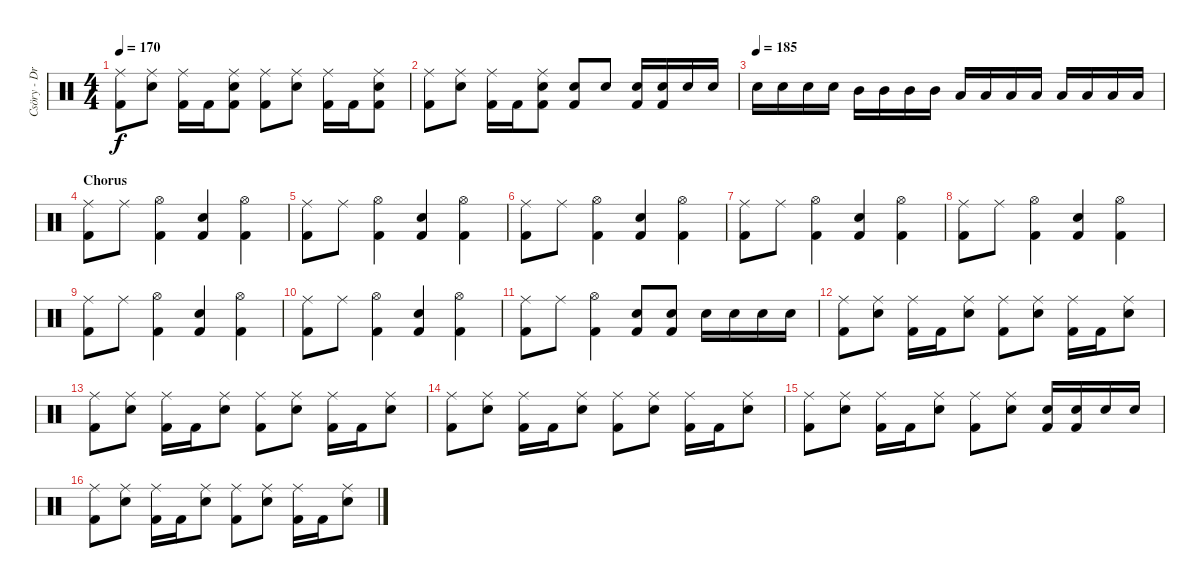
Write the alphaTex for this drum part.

\track ("Csöry - DrumZ" "Csöry - Dr") {instrument percussion}
\staff {score}
\articulation defaults
\ts (4 4)
\tempo 170
\clef neutral
\ks c
("Ride (middle)" "Kick (hit) 2").8{dy f} ("Ride (middle)" "Snare (hit) 2").8 ("Ride (middle)" "Kick (hit) 2").16 "Kick (hit) 2".16 ("Ride (middle)" "Snare (hit) 2" "Kick (hit) 2").8 ("Ride (middle)" "Kick (hit) 2").8 ("Ride (middle)" "Snare (hit) 2").8 ("Ride (middle)" "Kick (hit) 2").16 "Kick (hit) 2".16 ("Ride (middle)" "Snare (hit) 2" "Kick (hit) 2").8 |
("Ride (middle)" "Kick (hit) 2").8 ("Ride (middle)" "Snare (hit) 2").8 ("Ride (middle)" "Kick (hit) 2").16 "Kick (hit) 2".16 ("Ride (middle)" "Snare (hit) 2" "Kick (hit) 2").8 ("Snare (hit) 2" "Kick (hit) 2").8 "Snare (hit) 2".8 ("Snare (hit) 2" "Kick (hit) 2").16 ("Snare (hit) 2" "Kick (hit) 2").16 "Snare (hit) 2".16 "Snare (hit) 2".16 |
\tempo (185)
"Snare (hit) 2".16 "Snare (hit) 2".16 "Snare (hit) 2".16 "Snare (hit) 2".16 "Mid Tom (hit)".16 "Mid Tom (hit)".16 "Mid Tom (hit)".16 "Mid Tom (hit)".16 "Low Tom (hit)".16 "Low Tom (hit)".16 "Low Tom (hit)".16 "Low Tom (hit)".16 "Low Floor Tom (hit)".16 "Low Floor Tom (hit)".16 "Low Floor Tom (hit)".16 "Low Floor Tom (hit)".16 |
\section ("" "Chorus")
("Ride (middle)" "Kick (hit) 2").8 "Ride (middle)".8 ("Hi-Hat (open)" "Kick (hit) 2").4 ("Snare (hit) 2" "Kick (hit) 2").4 ("Hi-Hat (open)" "Kick (hit) 2").4 |
("Ride (middle)" "Kick (hit) 2").8 "Ride (middle)".8 ("Hi-Hat (open)" "Kick (hit) 2").4 ("Snare (hit) 2" "Kick (hit) 2").4 ("Hi-Hat (open)" "Kick (hit) 2").4 |
("Ride (middle)" "Kick (hit) 2").8 "Ride (middle)".8 ("Hi-Hat (open)" "Kick (hit) 2").4 ("Snare (hit) 2" "Kick (hit) 2").4 ("Hi-Hat (open)" "Kick (hit) 2").4 |
("Ride (middle)" "Kick (hit) 2").8 "Ride (middle)".8 ("Hi-Hat (open)" "Kick (hit) 2").4 ("Snare (hit) 2" "Kick (hit) 2").4 ("Hi-Hat (open)" "Kick (hit) 2").4 |
("Ride (middle)" "Kick (hit) 2").8 "Ride (middle)".8 ("Hi-Hat (open)" "Kick (hit) 2").4 ("Snare (hit) 2" "Kick (hit) 2").4 ("Hi-Hat (open)" "Kick (hit) 2").4 |
("Ride (middle)" "Kick (hit) 2").8 "Ride (middle)".8 ("Hi-Hat (open)" "Kick (hit) 2").4 ("Snare (hit) 2" "Kick (hit) 2").4 ("Hi-Hat (open)" "Kick (hit) 2").4 |
("Ride (middle)" "Kick (hit) 2").8 "Ride (middle)".8 ("Hi-Hat (open)" "Kick (hit) 2").4 ("Snare (hit) 2" "Kick (hit) 2").4 ("Hi-Hat (open)" "Kick (hit) 2").4 |
("Ride (middle)" "Kick (hit) 2").8 "Ride (middle)".8 ("Hi-Hat (open)" "Kick (hit) 2").4 ("Snare (hit) 2" "Kick (hit) 2").8 ("Snare (hit) 2" "Kick (hit) 2").8 "Snare (hit) 2".16 "Snare (hit) 2".16 "Snare (hit) 2".16 "Snare (hit) 2".16 |
("Ride (middle)" "Kick (hit) 2").8 ("Ride (middle)" "Snare (hit) 2").8 ("Ride (middle)" "Kick (hit) 2").16 "Kick (hit) 2".16 ("Ride (middle)" "Snare (hit) 2").8 ("Ride (middle)" "Kick (hit) 2").8 ("Ride (middle)" "Snare (hit) 2").8 ("Ride (middle)" "Kick (hit) 2").16 "Kick (hit) 2".16 ("Ride (middle)" "Snare (hit) 2").8 |
("Ride (middle)" "Kick (hit) 2").8 ("Ride (middle)" "Snare (hit) 2").8 ("Ride (middle)" "Kick (hit) 2").16 "Kick (hit) 2".16 ("Ride (middle)" "Snare (hit) 2").8 ("Ride (middle)" "Kick (hit) 2").8 ("Ride (middle)" "Snare (hit) 2").8 ("Ride (middle)" "Kick (hit) 2").16 "Kick (hit) 2".16 ("Ride (middle)" "Snare (hit) 2").8 |
("Ride (middle)" "Kick (hit) 2").8 ("Ride (middle)" "Snare (hit) 2").8 ("Ride (middle)" "Kick (hit) 2").16 "Kick (hit) 2".16 ("Ride (middle)" "Snare (hit) 2").8 ("Ride (middle)" "Kick (hit) 2").8 ("Ride (middle)" "Snare (hit) 2").8 ("Ride (middle)" "Kick (hit) 2").16 "Kick (hit) 2".16 ("Ride (middle)" "Snare (hit) 2").8 |
("Ride (middle)" "Kick (hit) 2").8 ("Ride (middle)" "Snare (hit) 2").8 ("Ride (middle)" "Kick (hit) 2").16 "Kick (hit) 2".16 ("Ride (middle)" "Snare (hit) 2").8 ("Ride (middle)" "Kick (hit) 2").8 ("Ride (middle)" "Snare (hit) 2").8 ("Snare (hit) 2" "Kick (hit) 2").16 ("Snare (hit) 2" "Kick (hit) 2").16 "Snare (hit) 2".16 "Snare (hit) 2".16 |
("Ride (middle)" "Kick (hit) 2").8 ("Ride (middle)" "Snare (hit) 2").8 ("Ride (middle)" "Kick (hit) 2").16 "Kick (hit) 2".16 ("Ride (middle)" "Snare (hit) 2").8 ("Ride (middle)" "Kick (hit) 2").8 ("Ride (middle)" "Snare (hit) 2").8 ("Ride (middle)" "Kick (hit) 2").16 "Kick (hit) 2".16 ("Ride (middle)" "Snare (hit) 2").8
